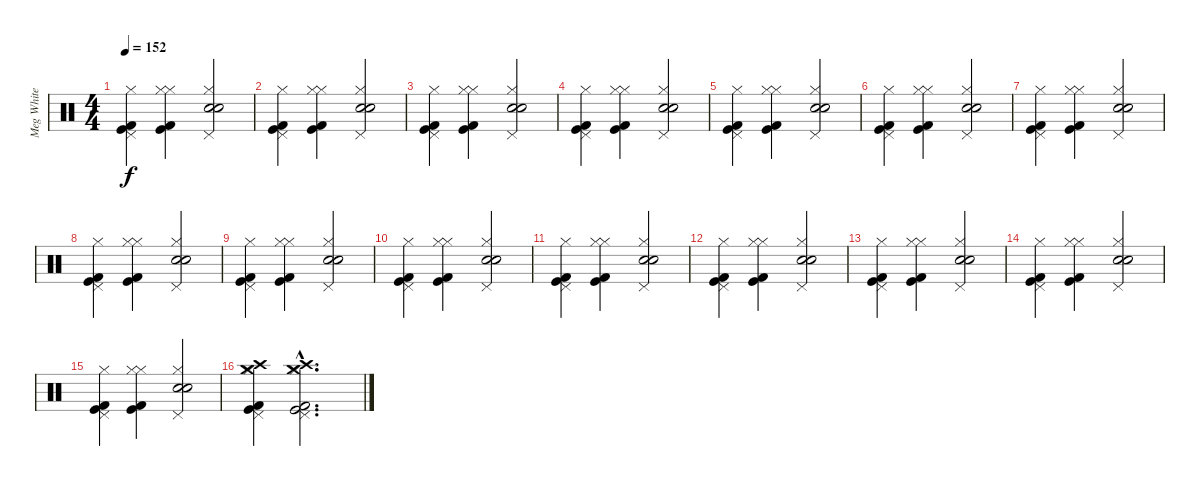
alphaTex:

\track ("Meg White" "Meg White") {instrument percussion}
\staff {score}
\articulation defaults
\ts (4 4)
\tempo 152
\clef neutral
\ks c
("Kick (hit) 2" "Kick (hit)" "Pedal Hi-Hat (hit)" "Hi-Hat (closed)").4{dy f} ("Kick (hit) 2" "Kick (hit)" "Hi-Hat (closed)" "Hi-Hat (closed)").4 ("Pedal Hi-Hat (hit)" "Electric Snare (hit)" "Snare (hit) 2" "Hi-Hat (closed)").2 |
("Kick (hit) 2" "Kick (hit)" "Pedal Hi-Hat (hit)" "Hi-Hat (closed)").4 ("Kick (hit) 2" "Kick (hit)" "Hi-Hat (closed)" "Hi-Hat (closed)").4 ("Pedal Hi-Hat (hit)" "Electric Snare (hit)" "Snare (hit) 2" "Hi-Hat (closed)").2 |
("Kick (hit) 2" "Kick (hit)" "Pedal Hi-Hat (hit)" "Hi-Hat (closed)").4 ("Kick (hit) 2" "Kick (hit)" "Hi-Hat (closed)" "Hi-Hat (closed)").4 ("Pedal Hi-Hat (hit)" "Electric Snare (hit)" "Snare (hit) 2" "Hi-Hat (closed)").2 |
("Kick (hit) 2" "Kick (hit)" "Pedal Hi-Hat (hit)" "Hi-Hat (closed)").4 ("Kick (hit) 2" "Kick (hit)" "Hi-Hat (closed)" "Hi-Hat (closed)").4 ("Pedal Hi-Hat (hit)" "Electric Snare (hit)" "Snare (hit) 2" "Hi-Hat (closed)").2 |
("Kick (hit) 2" "Kick (hit)" "Pedal Hi-Hat (hit)" "Hi-Hat (closed)").4 ("Kick (hit) 2" "Kick (hit)" "Hi-Hat (closed)" "Hi-Hat (closed)").4 ("Pedal Hi-Hat (hit)" "Electric Snare (hit)" "Snare (hit) 2" "Hi-Hat (closed)").2 |
("Kick (hit) 2" "Kick (hit)" "Pedal Hi-Hat (hit)" "Hi-Hat (closed)").4 ("Kick (hit) 2" "Kick (hit)" "Hi-Hat (closed)" "Hi-Hat (closed)").4 ("Pedal Hi-Hat (hit)" "Electric Snare (hit)" "Snare (hit) 2" "Hi-Hat (closed)").2 |
("Kick (hit) 2" "Kick (hit)" "Pedal Hi-Hat (hit)" "Hi-Hat (closed)").4 ("Kick (hit) 2" "Kick (hit)" "Hi-Hat (closed)" "Hi-Hat (closed)").4 ("Pedal Hi-Hat (hit)" "Electric Snare (hit)" "Snare (hit) 2" "Hi-Hat (closed)").2 |
("Kick (hit) 2" "Kick (hit)" "Pedal Hi-Hat (hit)" "Hi-Hat (closed)").4 ("Kick (hit) 2" "Kick (hit)" "Hi-Hat (closed)" "Hi-Hat (closed)").4 ("Pedal Hi-Hat (hit)" "Electric Snare (hit)" "Snare (hit) 2" "Hi-Hat (closed)").2 |
("Kick (hit) 2" "Kick (hit)" "Pedal Hi-Hat (hit)" "Hi-Hat (closed)").4 ("Kick (hit) 2" "Kick (hit)" "Hi-Hat (closed)" "Hi-Hat (closed)").4 ("Pedal Hi-Hat (hit)" "Electric Snare (hit)" "Snare (hit) 2" "Hi-Hat (closed)").2 |
("Kick (hit) 2" "Kick (hit)" "Pedal Hi-Hat (hit)" "Hi-Hat (closed)").4 ("Kick (hit) 2" "Kick (hit)" "Hi-Hat (closed)" "Hi-Hat (closed)").4 ("Pedal Hi-Hat (hit)" "Electric Snare (hit)" "Snare (hit) 2" "Hi-Hat (closed)").2 |
("Kick (hit) 2" "Kick (hit)" "Pedal Hi-Hat (hit)" "Hi-Hat (closed)").4 ("Kick (hit) 2" "Kick (hit)" "Hi-Hat (closed)" "Hi-Hat (closed)").4 ("Pedal Hi-Hat (hit)" "Electric Snare (hit)" "Snare (hit) 2" "Hi-Hat (closed)").2 |
("Kick (hit) 2" "Kick (hit)" "Pedal Hi-Hat (hit)" "Hi-Hat (closed)").4 ("Kick (hit) 2" "Kick (hit)" "Hi-Hat (closed)" "Hi-Hat (closed)").4 ("Pedal Hi-Hat (hit)" "Electric Snare (hit)" "Snare (hit) 2" "Hi-Hat (closed)").2 |
("Kick (hit) 2" "Kick (hit)" "Pedal Hi-Hat (hit)" "Hi-Hat (closed)").4 ("Kick (hit) 2" "Kick (hit)" "Hi-Hat (closed)" "Hi-Hat (closed)").4 ("Pedal Hi-Hat (hit)" "Electric Snare (hit)" "Snare (hit) 2" "Hi-Hat (closed)").2 |
("Kick (hit) 2" "Kick (hit)" "Pedal Hi-Hat (hit)" "Hi-Hat (closed)").4 ("Kick (hit) 2" "Kick (hit)" "Hi-Hat (closed)" "Hi-Hat (closed)").4 ("Pedal Hi-Hat (hit)" "Electric Snare (hit)" "Snare (hit) 2" "Hi-Hat (closed)").2 |
("Kick (hit) 2" "Kick (hit)" "Pedal Hi-Hat (hit)" "Hi-Hat (closed)").4 ("Kick (hit) 2" "Kick (hit)" "Hi-Hat (closed)" "Hi-Hat (closed)").4 ("Pedal Hi-Hat (hit)" "Electric Snare (hit)" "Snare (hit) 2" "Hi-Hat (closed)").2 |
("Kick (hit) 2" "Kick (hit)" "Pedal Hi-Hat (hit)" "Crash medium (hit)" "Crash high (hit)" "Hi-Hat (closed)").4 ("Kick (hit) 2"{hac} "Kick (hit)"{hac} "Pedal Hi-Hat (hit)"{hac} "Crash medium (hit)"{hac} "Crash high (hit)"{hac} "Hi-Hat (closed)"{hac}).2{d}
